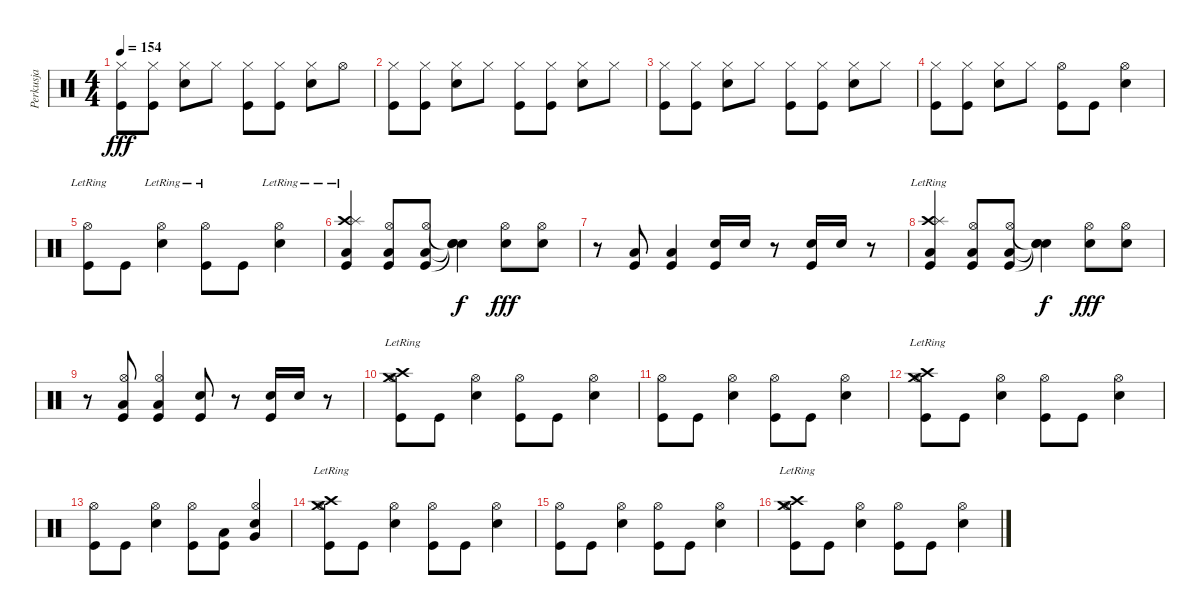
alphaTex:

\track ("Perkusja" "Perkusja") {instrument percussion}
\staff {score}
\articulation defaults
\ts (4 4)
\tempo 154
\clef neutral
\ks c
("Hi-Hat (closed)" "Kick (hit)").8{dy fff} ("Hi-Hat (closed)" "Kick (hit)").8 ("Hi-Hat (closed)" "Snare (hit) 2").8 "Hi-Hat (closed)".8 ("Hi-Hat (closed)" "Kick (hit)").8 ("Hi-Hat (closed)" "Kick (hit)").8 ("Hi-Hat (closed)" "Snare (hit) 2").8 "Hi-Hat (open)".8 |
("Hi-Hat (closed)" "Kick (hit)").8 ("Hi-Hat (closed)" "Kick (hit)").8 ("Hi-Hat (closed)" "Snare (hit) 2").8 "Hi-Hat (closed)".8 ("Hi-Hat (closed)" "Kick (hit)").8 ("Hi-Hat (closed)" "Kick (hit)").8 ("Hi-Hat (closed)" "Snare (hit) 2").8 "Hi-Hat (closed)".8 |
("Hi-Hat (closed)" "Kick (hit)").8 ("Hi-Hat (closed)" "Kick (hit)").8 ("Hi-Hat (closed)" "Snare (hit) 2").8 "Hi-Hat (closed)".8 ("Hi-Hat (closed)" "Kick (hit)").8 ("Hi-Hat (closed)" "Kick (hit)").8 ("Hi-Hat (closed)" "Snare (hit) 2").8 "Hi-Hat (closed)".8 |
("Hi-Hat (closed)" "Kick (hit)").8 ("Hi-Hat (closed)" "Kick (hit)").8 ("Hi-Hat (closed)" "Snare (hit) 2").8 "Hi-Hat (closed)".8 ("Hi-Hat (open)" "Kick (hit)").8 "Kick (hit)".8 ("Hi-Hat (open)" "Snare (hit) 2").4 |
("Hi-Hat (open)"{lr} "Kick (hit)").8 "Kick (hit)".8 ("Hi-Hat (open)"{lr} "Snare (hit) 2").4 ("Hi-Hat (open)"{lr} "Kick (hit)").8 "Kick (hit)".8 ("Hi-Hat (open)"{lr} "Snare (hit) 2").4 |
("Crash high (hit)"{lr} "Splash (hit)"{lr} "Low Tom (hit)"{lr} "Kick (hit)"{lr}).4 ("Hi-Hat (open)" "Low Tom (hit)" "Kick (hit)").8 ("Hi-Hat (open)" "Low Tom (hit)" "Kick (hit)").8 ("Snare (hit)"{t} "Snare (hit)"{t} "Snare (hit)"{t}).4{dy f} ("Hi-Hat (open)" "Snare (hit) 2").8{dy fff} ("Hi-Hat (open)" "Snare (hit) 2").8 |
r.8 ("Low Tom (hit)" "Kick (hit)").8 ("Low Tom (hit)" "Kick (hit)").4 ("Snare (hit) 2" "Kick (hit)").16 "Snare (hit) 2".16 r.8 ("Snare (hit) 2" "Kick (hit)").16 "Snare (hit) 2".16 r.8 |
("Crash high (hit)"{lr} "Splash (hit)"{lr} "Low Tom (hit)"{lr} "Kick (hit)"{lr}).4 ("Hi-Hat (open)" "Low Tom (hit)" "Kick (hit)").8 ("Hi-Hat (open)" "Low Tom (hit)" "Kick (hit)").8 ("Snare (hit)"{t} "Snare (hit)"{t} "Snare (hit)"{t}).4{dy f} ("Hi-Hat (open)" "Snare (hit) 2").8{dy fff} ("Hi-Hat (open)" "Snare (hit) 2").8 |
r.8 ("Hi-Hat (open)" "Low Tom (hit)" "Kick (hit)").8 ("Hi-Hat (open)" "Low Tom (hit)" "Kick (hit)").4 ("Snare (hit) 2" "Kick (hit)").8 r.8 ("Snare (hit) 2" "Kick (hit)").16 "Snare (hit) 2".16 r.8 |
("Crash high (hit)"{lr} "Hi-Hat (open)" "Crash medium (hit)"{lr} "Kick (hit)").8 "Kick (hit)".8 ("Hi-Hat (open)" "Snare (hit) 2").4 ("Hi-Hat (open)" "Kick (hit)").8 "Kick (hit)".8 ("Hi-Hat (open)" "Snare (hit) 2").4 |
("Hi-Hat (open)" "Kick (hit)").8 "Kick (hit)".8 ("Hi-Hat (open)" "Snare (hit) 2").4 ("Hi-Hat (open)" "Kick (hit)").8 "Kick (hit)".8 ("Hi-Hat (open)" "Snare (hit) 2").4 |
("Crash high (hit)"{lr} "Hi-Hat (open)" "Crash medium (hit)"{lr} "Kick (hit)").8 "Kick (hit)".8 ("Hi-Hat (open)" "Snare (hit) 2").4 ("Hi-Hat (open)" "Kick (hit)").8 "Kick (hit)".8 ("Hi-Hat (open)" "Snare (hit) 2").4 |
("Hi-Hat (open)" "Kick (hit)").8 "Kick (hit)".8 ("Hi-Hat (open)" "Snare (hit) 2").4 ("Hi-Hat (open)" "Kick (hit)").8 ("Low Tom (hit)" "Kick (hit)").8 ("Hi-Hat (open)" "Very Low Tom (hit)" "Snare (hit) 2").4 |
("Crash high (hit)"{lr} "Hi-Hat (open)" "Crash medium (hit)"{lr} "Kick (hit)").8 "Kick (hit)".8 ("Hi-Hat (open)" "Snare (hit) 2").4 ("Hi-Hat (open)" "Kick (hit)").8 "Kick (hit)".8 ("Hi-Hat (open)" "Snare (hit) 2").4 |
("Hi-Hat (open)" "Kick (hit)").8 "Kick (hit)".8 ("Hi-Hat (open)" "Snare (hit) 2").4 ("Hi-Hat (open)" "Kick (hit)").8 "Kick (hit)".8 ("Hi-Hat (open)" "Snare (hit) 2").4 |
("Crash high (hit)"{lr} "Hi-Hat (open)" "Crash medium (hit)"{lr} "Kick (hit)").8 "Kick (hit)".8 ("Hi-Hat (open)" "Snare (hit) 2").4 ("Hi-Hat (open)" "Kick (hit)").8 "Kick (hit)".8 ("Hi-Hat (open)" "Snare (hit) 2").4
